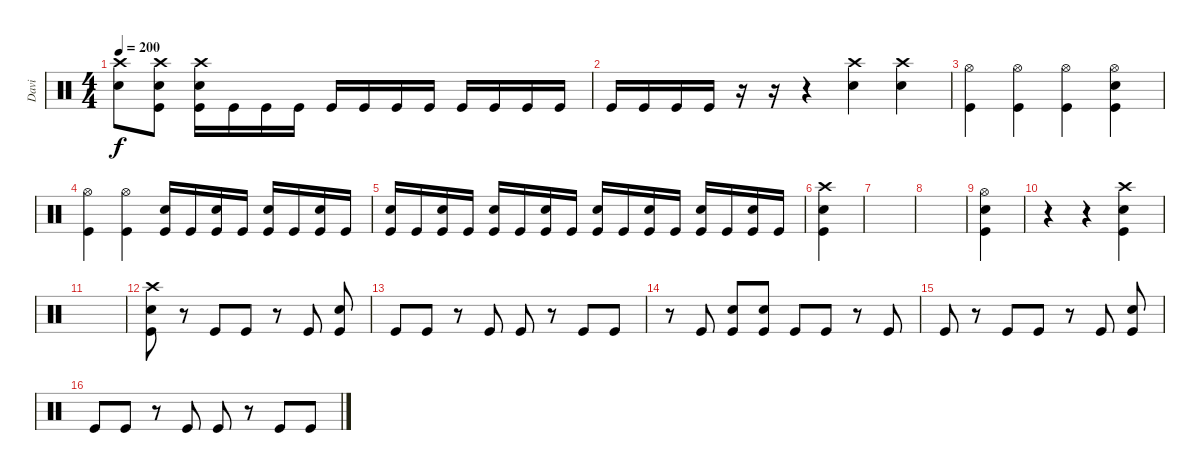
\track ("Davi" "Davi") {instrument percussion}
\staff {score}
\articulation defaults
\ts (4 4)
\tempo 200
\clef neutral
\ks c
("Crash high (hit)" "Electric Snare (hit)").8{dy f} ("Crash high (hit)" "Electric Snare (hit)" "Kick (hit)").8 ("Crash high (hit)" "Electric Snare (hit)" "Kick (hit)").16 "Kick (hit)".16 "Kick (hit)".16 "Kick (hit)".16 "Kick (hit)".16 "Kick (hit)".16 "Kick (hit)".16 "Kick (hit)".16 "Kick (hit)".16 "Kick (hit)".16 "Kick (hit)".16 "Kick (hit)".16 |
"Kick (hit)".16 "Kick (hit)".16 "Kick (hit)".16 "Kick (hit)".16 r.16 r.16 r.4 ("Crash high (hit)" "Electric Snare (hit)").4 ("Crash high (hit)" "Electric Snare (hit)").4 |
("Hi-Hat (open)" "Kick (hit)").4 ("Hi-Hat (open)" "Kick (hit)").4 ("Hi-Hat (open)" "Kick (hit)").4 ("Hi-Hat (open)" "Electric Snare (hit)" "Kick (hit)").4 |
("Hi-Hat (open)" "Kick (hit)").4 ("Hi-Hat (open)" "Kick (hit)").4 ("Electric Snare (hit)" "Kick (hit)").16 "Kick (hit)".16 ("Electric Snare (hit)" "Kick (hit)").16 "Kick (hit)".16 ("Electric Snare (hit)" "Kick (hit)").16 "Kick (hit)".16 ("Electric Snare (hit)" "Kick (hit)").16 "Kick (hit)".16 |
("Electric Snare (hit)" "Kick (hit)").16 "Kick (hit)".16 ("Electric Snare (hit)" "Kick (hit)").16 "Kick (hit)".16 ("Electric Snare (hit)" "Kick (hit)").16 "Kick (hit)".16 ("Electric Snare (hit)" "Kick (hit)").16 "Kick (hit)".16 ("Electric Snare (hit)" "Kick (hit)").16 "Kick (hit)".16 ("Electric Snare (hit)" "Kick (hit)").16 "Kick (hit)".16 ("Electric Snare (hit)" "Kick (hit)").16 "Kick (hit)".16 ("Electric Snare (hit)" "Kick (hit)").16 "Kick (hit)".16 |
("Crash high (hit)" "Electric Snare (hit)" "Kick (hit)").4 |
|
|
("Hi-Hat (open)" "Electric Snare (hit)" "Kick (hit)").4 |
r.4 r.4 ("Crash high (hit)" "Electric Snare (hit)" "Kick (hit)").4 |
|
("Crash high (hit)" "Electric Snare (hit)" "Kick (hit)").8 r.8 "Kick (hit)".8 "Kick (hit)".8 r.8 "Kick (hit)".8 ("Electric Snare (hit)" "Kick (hit)").8 |
"Kick (hit)".8 "Kick (hit)".8 r.8 "Kick (hit)".8 "Kick (hit)".8 r.8 "Kick (hit)".8 "Kick (hit)".8 |
r.8 "Kick (hit)".8 ("Electric Snare (hit)" "Kick (hit)").8 ("Electric Snare (hit)" "Kick (hit)").8 "Kick (hit)".8 "Kick (hit)".8 r.8 "Kick (hit)".8 |
"Kick (hit)".8 r.8 "Kick (hit)".8 "Kick (hit)".8 r.8 "Kick (hit)".8 ("Electric Snare (hit)" "Kick (hit)").8 |
"Kick (hit)".8 "Kick (hit)".8 r.8 "Kick (hit)".8 "Kick (hit)".8 r.8 "Kick (hit)".8 "Kick (hit)".8
